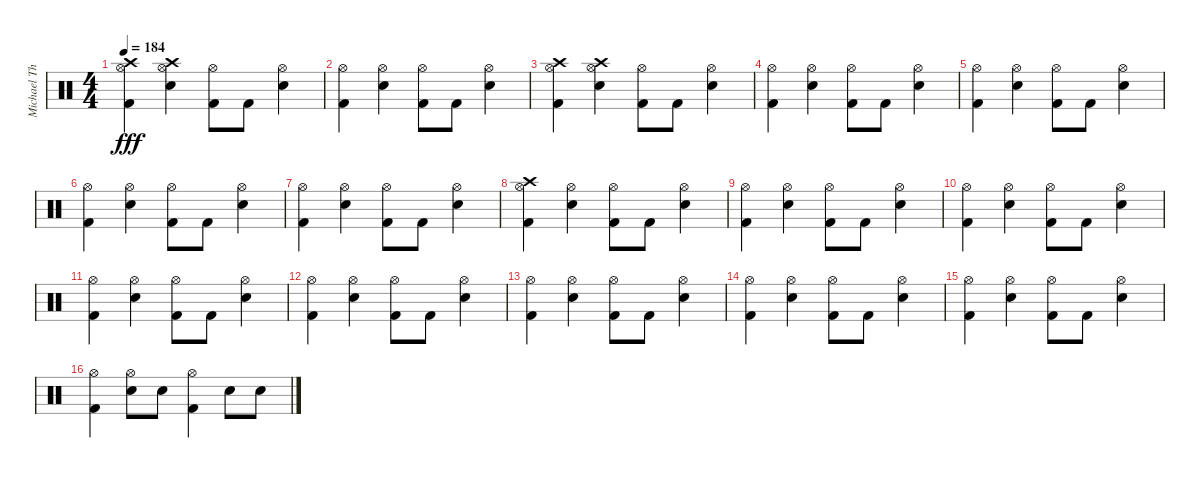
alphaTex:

\track ("Michael Thomas - Drums" "Michael Th") {instrument percussion}
\staff {score}
\articulation defaults
\ts (4 4)
\tempo 184
\clef neutral
\ks c
("Crash high (hit)" "Hi-Hat (open)" "Kick (hit) 2").4{dy fff} ("Crash high (hit)" "Hi-Hat (open)" "Snare (hit) 2").4 ("Hi-Hat (open)" "Kick (hit) 2").8 "Kick (hit) 2".8 ("Hi-Hat (open)" "Snare (hit) 2").4 |
("Hi-Hat (open)" "Kick (hit) 2").4 ("Hi-Hat (open)" "Snare (hit) 2").4 ("Hi-Hat (open)" "Kick (hit) 2").8 "Kick (hit) 2".8 ("Hi-Hat (open)" "Snare (hit) 2").4 |
("Crash high (hit)" "Hi-Hat (open)" "Kick (hit) 2").4 ("Crash high (hit)" "Hi-Hat (open)" "Snare (hit) 2").4 ("Hi-Hat (open)" "Kick (hit) 2").8 "Kick (hit) 2".8 ("Hi-Hat (open)" "Snare (hit) 2").4 |
("Hi-Hat (open)" "Kick (hit) 2").4 ("Hi-Hat (open)" "Snare (hit) 2").4 ("Hi-Hat (open)" "Kick (hit) 2").8 "Kick (hit) 2".8 ("Hi-Hat (open)" "Snare (hit) 2").4 |
("Hi-Hat (open)" "Kick (hit) 2").4 ("Hi-Hat (open)" "Snare (hit) 2").4 ("Hi-Hat (open)" "Kick (hit) 2").8 "Kick (hit) 2".8 ("Hi-Hat (open)" "Snare (hit) 2").4 |
("Hi-Hat (open)" "Kick (hit) 2").4 ("Hi-Hat (open)" "Snare (hit) 2").4 ("Hi-Hat (open)" "Kick (hit) 2").8 "Kick (hit) 2".8 ("Hi-Hat (open)" "Snare (hit) 2").4 |
("Hi-Hat (open)" "Kick (hit) 2").4 ("Hi-Hat (open)" "Snare (hit) 2").4 ("Hi-Hat (open)" "Kick (hit) 2").8 "Kick (hit) 2".8 ("Hi-Hat (open)" "Snare (hit) 2").4 |
("Crash high (hit)" "Hi-Hat (open)" "Kick (hit) 2").4 ("Hi-Hat (open)" "Snare (hit) 2").4 ("Hi-Hat (open)" "Kick (hit) 2").8 "Kick (hit) 2".8 ("Hi-Hat (open)" "Snare (hit) 2").4 |
("Hi-Hat (open)" "Kick (hit) 2").4 ("Hi-Hat (open)" "Snare (hit) 2").4 ("Hi-Hat (open)" "Kick (hit) 2").8 "Kick (hit) 2".8 ("Hi-Hat (open)" "Snare (hit) 2").4 |
("Hi-Hat (open)" "Kick (hit) 2").4 ("Hi-Hat (open)" "Snare (hit) 2").4 ("Hi-Hat (open)" "Kick (hit) 2").8 "Kick (hit) 2".8 ("Hi-Hat (open)" "Snare (hit) 2").4 |
("Hi-Hat (open)" "Kick (hit) 2").4 ("Hi-Hat (open)" "Snare (hit) 2").4 ("Hi-Hat (open)" "Kick (hit) 2").8 "Kick (hit) 2".8 ("Hi-Hat (open)" "Snare (hit) 2").4 |
("Hi-Hat (open)" "Kick (hit) 2").4 ("Hi-Hat (open)" "Snare (hit) 2").4 ("Hi-Hat (open)" "Kick (hit) 2").8 "Kick (hit) 2".8 ("Hi-Hat (open)" "Snare (hit) 2").4 |
("Hi-Hat (open)" "Kick (hit) 2").4 ("Hi-Hat (open)" "Snare (hit) 2").4 ("Hi-Hat (open)" "Kick (hit) 2").8 "Kick (hit) 2".8 ("Hi-Hat (open)" "Snare (hit) 2").4 |
("Hi-Hat (open)" "Kick (hit) 2").4 ("Hi-Hat (open)" "Snare (hit) 2").4 ("Hi-Hat (open)" "Kick (hit) 2").8 "Kick (hit) 2".8 ("Hi-Hat (open)" "Snare (hit) 2").4 |
("Hi-Hat (open)" "Kick (hit) 2").4 ("Hi-Hat (open)" "Snare (hit) 2").4 ("Hi-Hat (open)" "Kick (hit) 2").8 "Kick (hit) 2".8 ("Hi-Hat (open)" "Snare (hit) 2").4 |
("Hi-Hat (open)" "Kick (hit) 2").4 ("Hi-Hat (open)" "Snare (hit) 2").8 "Snare (hit) 2".8 ("Hi-Hat (open)" "Kick (hit) 2").4 "Snare (hit) 2".8 "Snare (hit) 2".8
